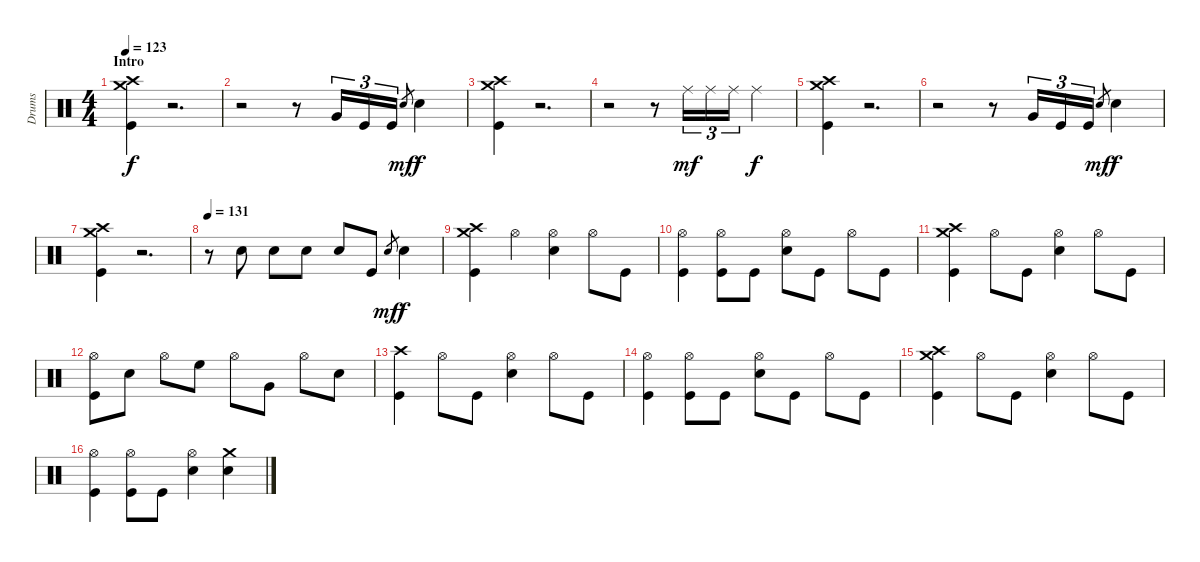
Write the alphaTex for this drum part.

\track ("Drums" "Drums") {instrument percussion}
\staff {score}
\articulation defaults
\ts (4 4)
\section ("" "Intro")
\tempo 123
\clef neutral
\ks c
("Kick (hit)" "Crash high (hit)" "Crash medium (hit)").4{dy f} r.2{d} |
r.2 r.8 "Very Low Tom (hit)".16{tu (3 2)} "Kick (hit)".16{tu (3 2)} "Kick (hit)".16{tu (3 2)} "Snare (hit) 2".8{gr dy mf} "Snare (hit) 2".4{dy f} |
("Kick (hit)" "Crash high (hit)" "Crash medium (hit)").4 r.2{d} |
r.2 r.8 "Ride (middle)".16{tu (3 2) dy mf} "Ride (middle)".16{tu (3 2)} "Ride (middle)".16{tu (3 2)} "Ride (middle)".4{dy f} |
("Kick (hit)" "Crash high (hit)" "Crash medium (hit)").4 r.2{d} |
r.2 r.8 "Very Low Tom (hit)".16{tu (3 2)} "Kick (hit)".16{tu (3 2)} "Kick (hit)".16{tu (3 2)} "Snare (hit) 2".8{gr dy mf} "Snare (hit) 2".4{dy f} |
("Kick (hit)" "Crash high (hit)" "Crash medium (hit)").4 r.2{d} |
\tempo 131
r.8 "Snare (hit) 2".8 "Snare (hit) 2".8 "Snare (hit) 2".8 "Snare (hit) 2".8 "Kick (hit)".8 "Snare (hit) 2".8{gr dy mf} "Snare (hit) 2".4{dy f} |
("Kick (hit)" "Crash high (hit)" "Crash medium (hit)").4 "Hi-Hat (open)".4 ("Snare (hit) 2" "Hi-Hat (open)").4 "Hi-Hat (open)".8 "Kick (hit)".8 |
("Kick (hit)" "Hi-Hat (open)").4 ("Kick (hit)" "Hi-Hat (open)").8 "Kick (hit)".8 ("Snare (hit) 2" "Hi-Hat (open)").8 "Kick (hit)".8 "Hi-Hat (open)".8 "Kick (hit)".8 |
("Kick (hit)" "Crash high (hit)" "Crash medium (hit)").4 "Hi-Hat (open)".8 "Kick (hit)".8 ("Snare (hit) 2" "Hi-Hat (open)").4 "Hi-Hat (open)".8 "Kick (hit)".8 |
("Kick (hit)" "Hi-Hat (open)").8 "Snare (hit) 2".8 "Hi-Hat (open)".8 "High Floor Tom (hit)".8 "Hi-Hat (open)".8 "Very Low Tom (hit)".8 "Hi-Hat (open)".8 "Snare (hit) 2".8 |
("Kick (hit)" "Crash high (hit)").4 "Hi-Hat (open)".8 "Kick (hit)".8 ("Snare (hit) 2" "Hi-Hat (open)").4 "Hi-Hat (open)".8 "Kick (hit)".8 |
("Kick (hit)" "Hi-Hat (open)").4 ("Kick (hit)" "Hi-Hat (open)").8 "Kick (hit)".8 ("Snare (hit) 2" "Hi-Hat (open)").8 "Kick (hit)".8 "Hi-Hat (open)".8 "Kick (hit)".8 |
("Kick (hit)" "Crash high (hit)" "Crash medium (hit)").4 "Hi-Hat (open)".8 "Kick (hit)".8 ("Snare (hit) 2" "Hi-Hat (open)").4 "Hi-Hat (open)".8 "Kick (hit)".8 |
("Kick (hit)" "Hi-Hat (open)").4 ("Kick (hit)" "Hi-Hat (open)").8 "Kick (hit)".8 ("Snare (hit) 2" "Hi-Hat (open)").4 ("Crash medium (hit)" "Snare (hit) 2").4
